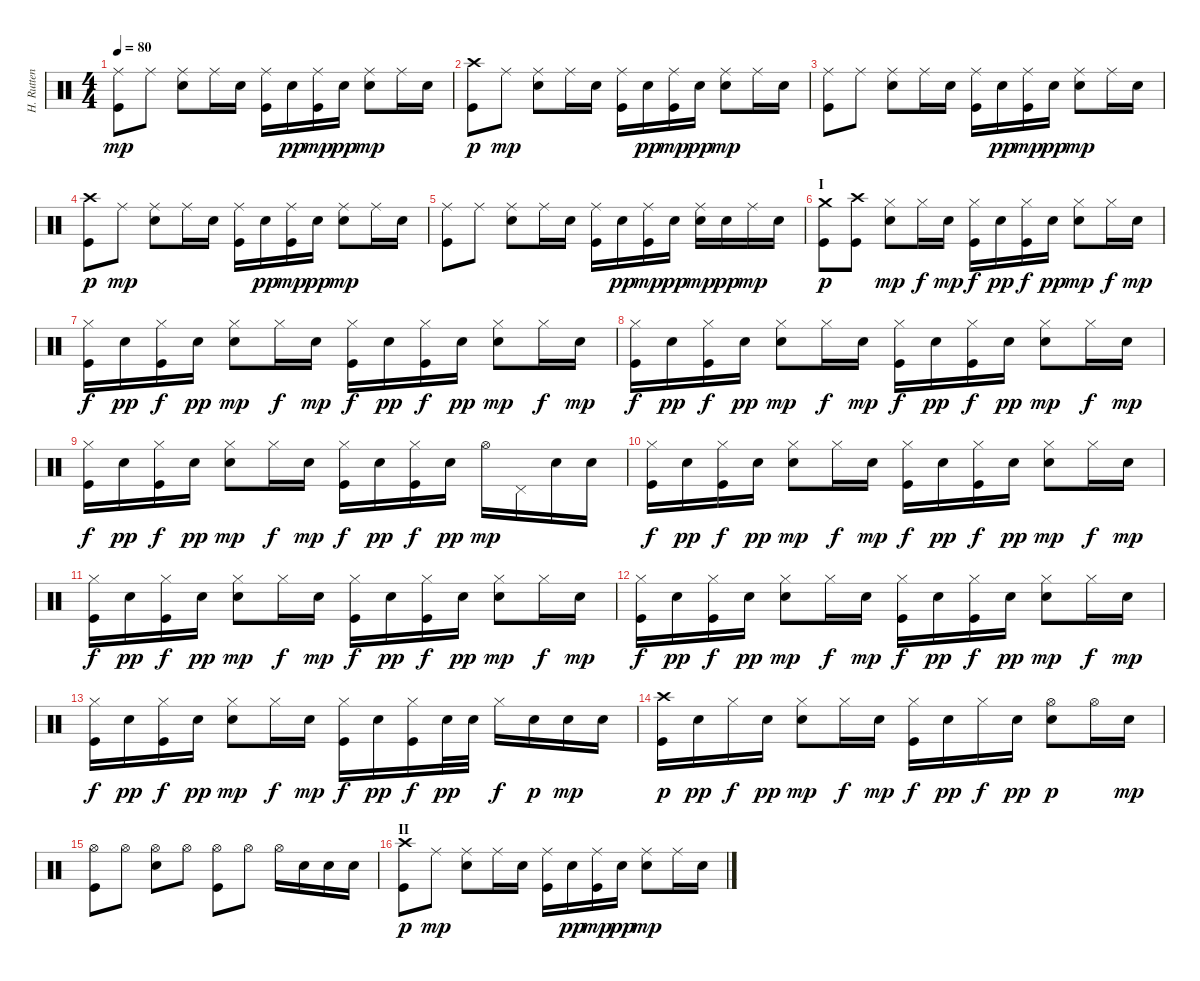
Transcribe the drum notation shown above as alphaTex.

\track ("H. Rutten" "H. Rutten") {instrument percussion}
\staff {score}
\articulation defaults
\ts (4 4)
\tempo 80
\clef neutral
\ks c
("Kick (hit)" "Ride (middle)").8{dy mp} "Ride (middle)".8 ("Electric Snare (hit)" "Ride (middle)").8 "Ride (middle)".16 "Electric Snare (hit)".16 ("Kick (hit)" "Ride (middle)").16 "Electric Snare (hit)".16{dy pp} ("Kick (hit)" "Ride (middle)").16{dy mp} "Electric Snare (hit)".16{dy pp} ("Electric Snare (hit)" "Ride (middle)").8{dy mp} "Ride (middle)".16 "Electric Snare (hit)".16 |
("Kick (hit)" "Crash high (hit)").8{dy p} "Ride (middle)".8{dy mp} ("Electric Snare (hit)" "Ride (middle)").8 "Ride (middle)".16 "Electric Snare (hit)".16 ("Kick (hit)" "Ride (middle)").16 "Electric Snare (hit)".16{dy pp} ("Kick (hit)" "Ride (middle)").16{dy mp} "Electric Snare (hit)".16{dy pp} ("Electric Snare (hit)" "Ride (middle)").8{dy mp} "Ride (middle)".16 "Electric Snare (hit)".16 |
("Kick (hit)" "Ride (middle)").8 "Ride (middle)".8 ("Electric Snare (hit)" "Ride (middle)").8 "Ride (middle)".16 "Electric Snare (hit)".16 ("Kick (hit)" "Ride (middle)").16 "Electric Snare (hit)".16{dy pp} ("Kick (hit)" "Ride (middle)").16{dy mp} "Electric Snare (hit)".16{dy pp} ("Electric Snare (hit)" "Ride (middle)").8{dy mp} "Ride (middle)".16 "Electric Snare (hit)".16 |
("Kick (hit)" "Crash high (hit)").8{dy p} "Ride (middle)".8{dy mp} ("Electric Snare (hit)" "Ride (middle)").8 "Ride (middle)".16 "Electric Snare (hit)".16 ("Kick (hit)" "Ride (middle)").16 "Electric Snare (hit)".16{dy pp} ("Kick (hit)" "Ride (middle)").16{dy mp} "Electric Snare (hit)".16{dy pp} ("Electric Snare (hit)" "Ride (middle)").8{dy mp} "Ride (middle)".16 "Electric Snare (hit)".16 |
("Kick (hit)" "Ride (middle)").8 "Ride (middle)".8 ("Electric Snare (hit)" "Ride (middle)").8 "Ride (middle)".16 "Electric Snare (hit)".16 ("Kick (hit)" "Ride (middle)").16 "Electric Snare (hit)".16{dy pp} ("Kick (hit)" "Ride (middle)").16{dy mp} "Electric Snare (hit)".16{dy pp} ("Electric Snare (hit)" "Ride (middle)").16{dy mp} "Electric Snare (hit)".16{dy pp} "Ride (middle)".16{dy mp} "Electric Snare (hit)".16 |
\section ("" "I")
("Kick (hit)" "Crash medium (hit)").8{dy p} ("Kick (hit)" "Crash high (hit)").8 ("Electric Snare (hit)" "Hi-Hat (closed)").8{dy mp} "Hi-Hat (closed)".16{dy f} "Electric Snare (hit)".16{dy mp} ("Kick (hit)" "Hi-Hat (closed)").16{dy f} "Electric Snare (hit)".16{dy pp} ("Kick (hit)" "Hi-Hat (closed)").16{dy f} "Electric Snare (hit)".16{dy pp} ("Electric Snare (hit)" "Hi-Hat (closed)").8{dy mp} "Hi-Hat (closed)".16{dy f} "Electric Snare (hit)".16{dy mp} |
("Kick (hit)" "Hi-Hat (closed)").16{dy f} "Electric Snare (hit)".16{dy pp} ("Kick (hit)" "Hi-Hat (closed)").16{dy f} "Electric Snare (hit)".16{dy pp} ("Electric Snare (hit)" "Hi-Hat (closed)").8{dy mp} "Hi-Hat (closed)".16{dy f} "Electric Snare (hit)".16{dy mp} ("Kick (hit)" "Hi-Hat (closed)").16{dy f} "Electric Snare (hit)".16{dy pp} ("Kick (hit)" "Hi-Hat (closed)").16{dy f} "Electric Snare (hit)".16{dy pp} ("Electric Snare (hit)" "Hi-Hat (closed)").8{dy mp} "Hi-Hat (closed)".16{dy f} "Electric Snare (hit)".16{dy mp} |
("Kick (hit)" "Hi-Hat (closed)").16{dy f} "Electric Snare (hit)".16{dy pp} ("Kick (hit)" "Hi-Hat (closed)").16{dy f} "Electric Snare (hit)".16{dy pp} ("Electric Snare (hit)" "Hi-Hat (closed)").8{dy mp} "Hi-Hat (closed)".16{dy f} "Electric Snare (hit)".16{dy mp} ("Kick (hit)" "Hi-Hat (closed)").16{dy f} "Electric Snare (hit)".16{dy pp} ("Kick (hit)" "Hi-Hat (closed)").16{dy f} "Electric Snare (hit)".16{dy pp} ("Electric Snare (hit)" "Hi-Hat (closed)").8{dy mp} "Hi-Hat (closed)".16{dy f} "Electric Snare (hit)".16{dy mp} |
("Kick (hit)" "Hi-Hat (closed)").16{dy f} "Electric Snare (hit)".16{dy pp} ("Kick (hit)" "Hi-Hat (closed)").16{dy f} "Electric Snare (hit)".16{dy pp} ("Electric Snare (hit)" "Hi-Hat (closed)").8{dy mp} "Hi-Hat (closed)".16{dy f} "Electric Snare (hit)".16{dy mp} ("Kick (hit)" "Hi-Hat (closed)").16{dy f} "Electric Snare (hit)".16{dy pp} ("Kick (hit)" "Hi-Hat (closed)").16{dy f} "Electric Snare (hit)".16{dy pp} "Hi-Hat (open)".16{dy mp} "Pedal Hi-Hat (hit)".16 "Electric Snare (hit)".16 "Electric Snare (hit)".16 |
("Kick (hit)" "Hi-Hat (closed)").16{dy f} "Electric Snare (hit)".16{dy pp} ("Kick (hit)" "Hi-Hat (closed)").16{dy f} "Electric Snare (hit)".16{dy pp} ("Electric Snare (hit)" "Hi-Hat (closed)").8{dy mp} "Hi-Hat (closed)".16{dy f} "Electric Snare (hit)".16{dy mp} ("Kick (hit)" "Hi-Hat (closed)").16{dy f} "Electric Snare (hit)".16{dy pp} ("Kick (hit)" "Hi-Hat (closed)").16{dy f} "Electric Snare (hit)".16{dy pp} ("Electric Snare (hit)" "Hi-Hat (closed)").8{dy mp} "Hi-Hat (closed)".16{dy f} "Electric Snare (hit)".16{dy mp} |
("Kick (hit)" "Hi-Hat (closed)").16{dy f} "Electric Snare (hit)".16{dy pp} ("Kick (hit)" "Hi-Hat (closed)").16{dy f} "Electric Snare (hit)".16{dy pp} ("Electric Snare (hit)" "Hi-Hat (closed)").8{dy mp} "Hi-Hat (closed)".16{dy f} "Electric Snare (hit)".16{dy mp} ("Kick (hit)" "Hi-Hat (closed)").16{dy f} "Electric Snare (hit)".16{dy pp} ("Kick (hit)" "Hi-Hat (closed)").16{dy f} "Electric Snare (hit)".16{dy pp} ("Electric Snare (hit)" "Hi-Hat (closed)").8{dy mp} "Hi-Hat (closed)".16{dy f} "Electric Snare (hit)".16{dy mp} |
("Kick (hit)" "Hi-Hat (closed)").16{dy f} "Electric Snare (hit)".16{dy pp} ("Kick (hit)" "Hi-Hat (closed)").16{dy f} "Electric Snare (hit)".16{dy pp} ("Electric Snare (hit)" "Hi-Hat (closed)").8{dy mp} "Hi-Hat (closed)".16{dy f} "Electric Snare (hit)".16{dy mp} ("Kick (hit)" "Hi-Hat (closed)").16{dy f} "Electric Snare (hit)".16{dy pp} ("Kick (hit)" "Hi-Hat (closed)").16{dy f} "Electric Snare (hit)".16{dy pp} ("Electric Snare (hit)" "Hi-Hat (closed)").8{dy mp} "Hi-Hat (closed)".16{dy f} "Electric Snare (hit)".16{dy mp} |
("Kick (hit)" "Hi-Hat (closed)").16{dy f} "Electric Snare (hit)".16{dy pp} ("Kick (hit)" "Hi-Hat (closed)").16{dy f} "Electric Snare (hit)".16{dy pp} ("Electric Snare (hit)" "Hi-Hat (closed)").8{dy mp} "Hi-Hat (closed)".16{dy f} "Electric Snare (hit)".16{dy mp} ("Kick (hit)" "Hi-Hat (closed)").16{dy f} "Electric Snare (hit)".16{dy pp} ("Kick (hit)" "Hi-Hat (closed)").16{dy f} "Electric Snare (hit)".32{dy pp} "Electric Snare (hit)".32 "Hi-Hat (closed)".16{dy f} "Electric Snare (hit)".16{dy p} "Electric Snare (hit)".16{dy mp} "Electric Snare (hit)".16 |
("Kick (hit)" "Crash high (hit)").16{dy p} "Electric Snare (hit)".16{dy pp} "Hi-Hat (closed)".16{dy f} "Electric Snare (hit)".16{dy pp} ("Electric Snare (hit)" "Hi-Hat (closed)").8{dy mp} "Hi-Hat (closed)".16{dy f} "Electric Snare (hit)".16{dy mp} ("Kick (hit)" "Hi-Hat (closed)").16{dy f} "Electric Snare (hit)".16{dy pp} "Hi-Hat (closed)".16{dy f} "Electric Snare (hit)".16{dy pp} ("Electric Snare (hit)" "Hi-Hat (open)").8{dy p} "Hi-Hat (open)".16 "Electric Snare (hit)".16{dy mp} |
("Kick (hit)" "Hi-Hat (open)").8 "Hi-Hat (open)".8 ("Electric Snare (hit)" "Hi-Hat (open)").8 "Hi-Hat (open)".8 ("Kick (hit)" "Hi-Hat (open)").8 "Hi-Hat (open)".8 "Hi-Hat (open)".16 "Electric Snare (hit)".16 "Electric Snare (hit)".16 "Electric Snare (hit)".16 |
\section ("" "II")
("Kick (hit)" "Crash high (hit)").8{dy p} "Ride (middle)".8{dy mp} ("Electric Snare (hit)" "Ride (middle)").8 "Ride (middle)".16 "Electric Snare (hit)".16 ("Kick (hit)" "Ride (middle)").16 "Electric Snare (hit)".16{dy pp} ("Kick (hit)" "Ride (middle)").16{dy mp} "Electric Snare (hit)".16{dy pp} ("Electric Snare (hit)" "Ride (middle)").8{dy mp} "Ride (middle)".16 "Electric Snare (hit)".16
